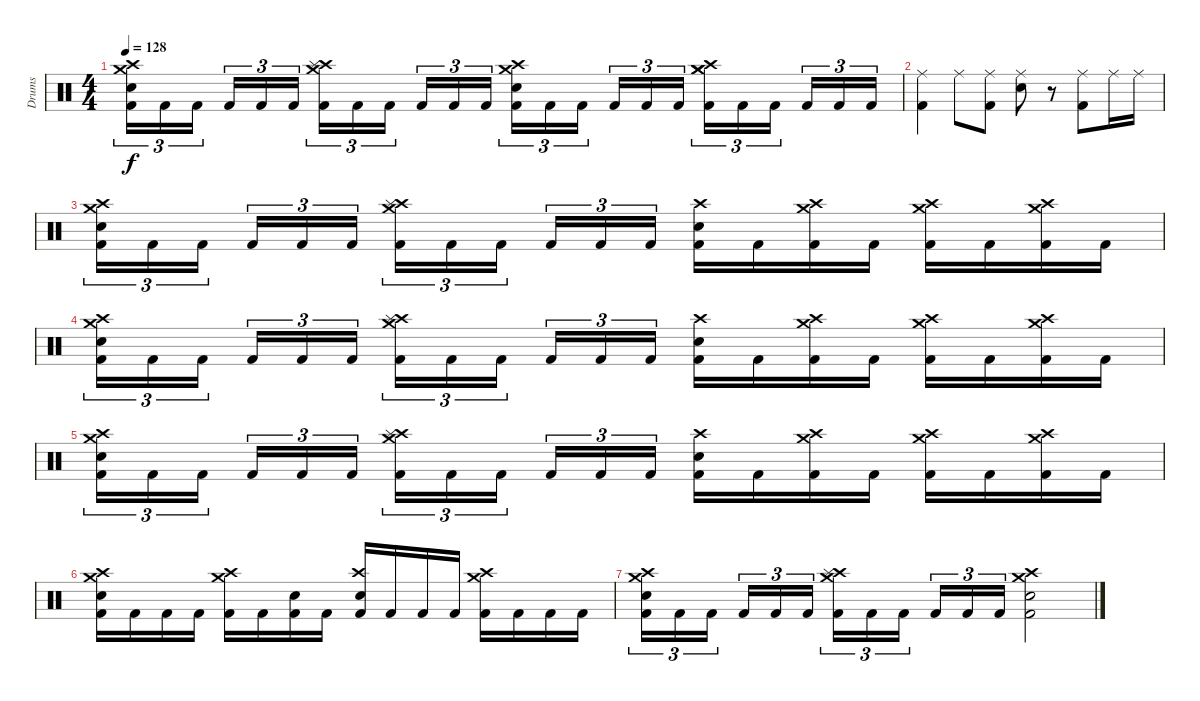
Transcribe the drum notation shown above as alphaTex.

\track ("Drums" "Drums") {instrument percussion}
\staff {score}
\articulation defaults
\ts (4 4)
\tempo 128
\clef neutral
\ks c
("Crash medium (hit)" "Snare (hit) 2" "Crash high (hit)" "Kick (hit) 2").16{tu (3 2) dy f} "Kick (hit) 2".16{tu (3 2)} "Kick (hit) 2".16{tu (3 2)} "Kick (hit) 2".16{tu (3 2)} "Kick (hit) 2".16{tu (3 2)} "Kick (hit) 2".16{tu (3 2)} ("Crash medium (hit)" "Crash high (hit)" "Splash (hit)" "Kick (hit) 2").16{tu (3 2)} "Kick (hit) 2".16{tu (3 2)} "Kick (hit) 2".16{tu (3 2)} "Kick (hit) 2".16{tu (3 2)} "Kick (hit) 2".16{tu (3 2)} "Kick (hit) 2".16{tu (3 2)} ("Crash high (hit)" "Snare (hit) 2" "Crash medium (hit)" "Kick (hit) 2").16{tu (3 2)} "Kick (hit) 2".16{tu (3 2)} "Kick (hit) 2".16{tu (3 2)} "Kick (hit) 2".16{tu (3 2)} "Kick (hit) 2".16{tu (3 2)} "Kick (hit) 2".16{tu (3 2)} ("Crash high (hit)" "Crash medium (hit)" "Crash medium (hit)" "Kick (hit) 2").16{tu (3 2)} "Kick (hit) 2".16{tu (3 2)} "Kick (hit) 2".16{tu (3 2)} "Kick (hit) 2".16{tu (3 2)} "Kick (hit) 2".16{tu (3 2)} "Kick (hit) 2".16{tu (3 2)} |
("Ride (middle)" "Kick (hit) 2").4 "Ride (middle)".8 ("Ride (middle)" "Kick (hit) 2").8 ("Ride (middle)" "Snare (hit) 2").8 r.8 ("Ride (middle)" "Kick (hit) 2").8 "Ride (middle)".16 "Ride (middle)".16 |
("Crash medium (hit)" "Snare (hit) 2" "Crash high (hit)" "Kick (hit) 2").16{tu (3 2)} "Kick (hit) 2".16{tu (3 2)} "Kick (hit) 2".16{tu (3 2)} "Kick (hit) 2".16{tu (3 2)} "Kick (hit) 2".16{tu (3 2)} "Kick (hit) 2".16{tu (3 2)} ("Crash medium (hit)" "Crash high (hit)" "Splash (hit)" "Kick (hit) 2").16{tu (3 2)} "Kick (hit) 2".16{tu (3 2)} "Kick (hit) 2".16{tu (3 2)} "Kick (hit) 2".16{tu (3 2)} "Kick (hit) 2".16{tu (3 2)} "Kick (hit) 2".16{tu (3 2)} ("Crash high (hit)" "Snare (hit) 2" "Kick (hit) 2").16 "Kick (hit) 2".16 ("Crash medium (hit)" "Crash high (hit)" "Kick (hit) 2").16 "Kick (hit) 2".16 ("Crash high (hit)" "Crash medium (hit)" "Kick (hit) 2").16 "Kick (hit) 2".16 ("Crash high (hit)" "Crash medium (hit)" "Kick (hit) 2").16 "Kick (hit) 2".16 |
("Crash medium (hit)" "Snare (hit) 2" "Crash high (hit)" "Kick (hit) 2").16{tu (3 2)} "Kick (hit) 2".16{tu (3 2)} "Kick (hit) 2".16{tu (3 2)} "Kick (hit) 2".16{tu (3 2)} "Kick (hit) 2".16{tu (3 2)} "Kick (hit) 2".16{tu (3 2)} ("Crash medium (hit)" "Crash high (hit)" "Splash (hit)" "Kick (hit) 2").16{tu (3 2)} "Kick (hit) 2".16{tu (3 2)} "Kick (hit) 2".16{tu (3 2)} "Kick (hit) 2".16{tu (3 2)} "Kick (hit) 2".16{tu (3 2)} "Kick (hit) 2".16{tu (3 2)} ("Crash high (hit)" "Snare (hit) 2" "Kick (hit) 2").16 "Kick (hit) 2".16 ("Crash medium (hit)" "Crash high (hit)" "Kick (hit) 2").16 "Kick (hit) 2".16 ("Crash high (hit)" "Crash medium (hit)" "Kick (hit) 2").16 "Kick (hit) 2".16 ("Crash high (hit)" "Crash medium (hit)" "Kick (hit) 2").16 "Kick (hit) 2".16 |
("Crash medium (hit)" "Snare (hit) 2" "Crash high (hit)" "Kick (hit) 2").16{tu (3 2)} "Kick (hit) 2".16{tu (3 2)} "Kick (hit) 2".16{tu (3 2)} "Kick (hit) 2".16{tu (3 2)} "Kick (hit) 2".16{tu (3 2)} "Kick (hit) 2".16{tu (3 2)} ("Crash medium (hit)" "Crash high (hit)" "Splash (hit)" "Kick (hit) 2").16{tu (3 2)} "Kick (hit) 2".16{tu (3 2)} "Kick (hit) 2".16{tu (3 2)} "Kick (hit) 2".16{tu (3 2)} "Kick (hit) 2".16{tu (3 2)} "Kick (hit) 2".16{tu (3 2)} ("Crash high (hit)" "Snare (hit) 2" "Kick (hit) 2").16 "Kick (hit) 2".16 ("Crash medium (hit)" "Crash high (hit)" "Kick (hit) 2").16 "Kick (hit) 2".16 ("Crash high (hit)" "Crash medium (hit)" "Kick (hit) 2").16 "Kick (hit) 2".16 ("Crash high (hit)" "Crash medium (hit)" "Kick (hit) 2").16 "Kick (hit) 2".16 |
("Crash medium (hit)" "Snare (hit) 2" "Crash high (hit)" "Kick (hit) 2").16 "Kick (hit) 2".16 "Kick (hit) 2".16 "Kick (hit) 2".16 ("Crash medium (hit)" "Crash high (hit)" "Kick (hit) 2").16 "Kick (hit) 2".16 ("Snare (hit) 2" "Kick (hit) 2").16 "Kick (hit) 2".16 ("Snare (hit) 2" "Crash high (hit)" "Kick (hit) 2").16 "Kick (hit) 2".16 "Kick (hit) 2".16 "Kick (hit) 2".16 ("Crash high (hit)" "Crash medium (hit)" "Kick (hit) 2").16 "Kick (hit) 2".16 "Kick (hit) 2".16 "Kick (hit) 2".16 |
("Crash medium (hit)" "Snare (hit) 2" "Crash high (hit)" "Kick (hit) 2").16{tu (3 2)} "Kick (hit) 2".16{tu (3 2)} "Kick (hit) 2".16{tu (3 2)} "Kick (hit) 2".16{tu (3 2)} "Kick (hit) 2".16{tu (3 2)} "Kick (hit) 2".16{tu (3 2)} ("Crash medium (hit)" "Crash high (hit)" "Splash (hit)" "Kick (hit) 2").16{tu (3 2)} "Kick (hit) 2".16{tu (3 2)} "Kick (hit) 2".16{tu (3 2)} "Kick (hit) 2".16{tu (3 2)} "Kick (hit) 2".16{tu (3 2)} "Kick (hit) 2".16{tu (3 2)} ("Crash high (hit)" "Crash medium (hit)" "Snare (hit) 2" "Kick (hit) 2").2
